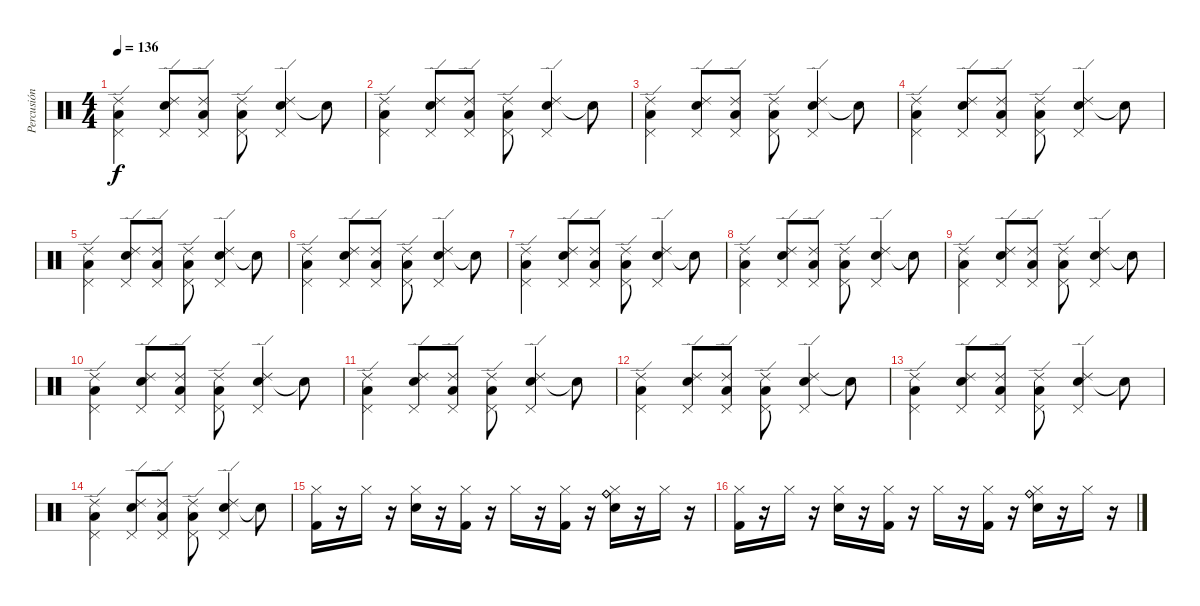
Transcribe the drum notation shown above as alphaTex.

\track ("Percusión" "Percusión") {instrument percussion}
\staff {score}
\articulation defaults
\ts (4 4)
\tempo 136
\clef neutral
\ks c
("Low Tom (hit)" "Pedal Hi-Hat (hit)" "Ride (edge) 2").4{dy f} ("Electric Snare (hit)" "Pedal Hi-Hat (hit)" "Ride (edge) 2").8 ("Low Tom (hit)" "Pedal Hi-Hat (hit)" "Ride (edge) 2").8 ("Low Tom (hit)" "Pedal Hi-Hat (hit)" "Ride (edge) 2").8 ("Electric Snare (hit)" "Pedal Hi-Hat (hit)" "Ride (edge) 2").4 "Snare (hit)"{t}.8 |
("Low Tom (hit)" "Pedal Hi-Hat (hit)" "Ride (edge) 2").4 ("Electric Snare (hit)" "Pedal Hi-Hat (hit)" "Ride (edge) 2").8 ("Low Tom (hit)" "Pedal Hi-Hat (hit)" "Ride (edge) 2").8 ("Low Tom (hit)" "Pedal Hi-Hat (hit)" "Ride (edge) 2").8 ("Electric Snare (hit)" "Pedal Hi-Hat (hit)" "Ride (edge) 2").4 "Snare (hit)"{t}.8 |
("Low Tom (hit)" "Pedal Hi-Hat (hit)" "Ride (edge) 2").4 ("Electric Snare (hit)" "Pedal Hi-Hat (hit)" "Ride (edge) 2").8 ("Low Tom (hit)" "Pedal Hi-Hat (hit)" "Ride (edge) 2").8 ("Low Tom (hit)" "Pedal Hi-Hat (hit)" "Ride (edge) 2").8 ("Electric Snare (hit)" "Pedal Hi-Hat (hit)" "Ride (edge) 2").4 "Snare (hit)"{t}.8 |
("Low Tom (hit)" "Pedal Hi-Hat (hit)" "Ride (edge) 2").4 ("Electric Snare (hit)" "Pedal Hi-Hat (hit)" "Ride (edge) 2").8 ("Low Tom (hit)" "Pedal Hi-Hat (hit)" "Ride (edge) 2").8 ("Low Tom (hit)" "Pedal Hi-Hat (hit)" "Ride (edge) 2").8 ("Electric Snare (hit)" "Pedal Hi-Hat (hit)" "Ride (edge) 2").4 "Snare (hit)"{t}.8 |
("Low Tom (hit)" "Pedal Hi-Hat (hit)" "Ride (edge) 2").4 ("Electric Snare (hit)" "Pedal Hi-Hat (hit)" "Ride (edge) 2").8 ("Low Tom (hit)" "Pedal Hi-Hat (hit)" "Ride (edge) 2").8 ("Low Tom (hit)" "Pedal Hi-Hat (hit)" "Ride (edge) 2").8 ("Electric Snare (hit)" "Pedal Hi-Hat (hit)" "Ride (edge) 2").4 "Snare (hit)"{t}.8 |
("Low Tom (hit)" "Pedal Hi-Hat (hit)" "Ride (edge) 2").4 ("Electric Snare (hit)" "Pedal Hi-Hat (hit)" "Ride (edge) 2").8 ("Low Tom (hit)" "Pedal Hi-Hat (hit)" "Ride (edge) 2").8 ("Low Tom (hit)" "Pedal Hi-Hat (hit)" "Ride (edge) 2").8 ("Electric Snare (hit)" "Pedal Hi-Hat (hit)" "Ride (edge) 2").4 "Snare (hit)"{t}.8 |
("Low Tom (hit)" "Pedal Hi-Hat (hit)" "Ride (edge) 2").4 ("Electric Snare (hit)" "Pedal Hi-Hat (hit)" "Ride (edge) 2").8 ("Low Tom (hit)" "Pedal Hi-Hat (hit)" "Ride (edge) 2").8 ("Low Tom (hit)" "Pedal Hi-Hat (hit)" "Ride (edge) 2").8 ("Electric Snare (hit)" "Pedal Hi-Hat (hit)" "Ride (edge) 2").4 "Snare (hit)"{t}.8 |
("Low Tom (hit)" "Pedal Hi-Hat (hit)" "Ride (edge) 2").4 ("Electric Snare (hit)" "Pedal Hi-Hat (hit)" "Ride (edge) 2").8 ("Low Tom (hit)" "Pedal Hi-Hat (hit)" "Ride (edge) 2").8 ("Low Tom (hit)" "Pedal Hi-Hat (hit)" "Ride (edge) 2").8 ("Electric Snare (hit)" "Pedal Hi-Hat (hit)" "Ride (edge) 2").4 "Snare (hit)"{t}.8 |
("Low Tom (hit)" "Pedal Hi-Hat (hit)" "Ride (edge) 2").4 ("Electric Snare (hit)" "Pedal Hi-Hat (hit)" "Ride (edge) 2").8 ("Low Tom (hit)" "Pedal Hi-Hat (hit)" "Ride (edge) 2").8 ("Low Tom (hit)" "Pedal Hi-Hat (hit)" "Ride (edge) 2").8 ("Electric Snare (hit)" "Pedal Hi-Hat (hit)" "Ride (edge) 2").4 "Snare (hit)"{t}.8 |
("Low Tom (hit)" "Pedal Hi-Hat (hit)" "Ride (edge) 2").4 ("Electric Snare (hit)" "Pedal Hi-Hat (hit)" "Ride (edge) 2").8 ("Low Tom (hit)" "Pedal Hi-Hat (hit)" "Ride (edge) 2").8 ("Low Tom (hit)" "Pedal Hi-Hat (hit)" "Ride (edge) 2").8 ("Electric Snare (hit)" "Pedal Hi-Hat (hit)" "Ride (edge) 2").4 "Snare (hit)"{t}.8 |
("Low Tom (hit)" "Pedal Hi-Hat (hit)" "Ride (edge) 2").4 ("Electric Snare (hit)" "Pedal Hi-Hat (hit)" "Ride (edge) 2").8 ("Low Tom (hit)" "Pedal Hi-Hat (hit)" "Ride (edge) 2").8 ("Low Tom (hit)" "Pedal Hi-Hat (hit)" "Ride (edge) 2").8 ("Electric Snare (hit)" "Pedal Hi-Hat (hit)" "Ride (edge) 2").4 "Snare (hit)"{t}.8 |
("Low Tom (hit)" "Pedal Hi-Hat (hit)" "Ride (edge) 2").4 ("Electric Snare (hit)" "Pedal Hi-Hat (hit)" "Ride (edge) 2").8 ("Low Tom (hit)" "Pedal Hi-Hat (hit)" "Ride (edge) 2").8 ("Low Tom (hit)" "Pedal Hi-Hat (hit)" "Ride (edge) 2").8 ("Electric Snare (hit)" "Pedal Hi-Hat (hit)" "Ride (edge) 2").4 "Snare (hit)"{t}.8 |
("Low Tom (hit)" "Pedal Hi-Hat (hit)" "Ride (edge) 2").4 ("Electric Snare (hit)" "Pedal Hi-Hat (hit)" "Ride (edge) 2").8 ("Low Tom (hit)" "Pedal Hi-Hat (hit)" "Ride (edge) 2").8 ("Low Tom (hit)" "Pedal Hi-Hat (hit)" "Ride (edge) 2").8 ("Electric Snare (hit)" "Pedal Hi-Hat (hit)" "Ride (edge) 2").4 "Snare (hit)"{t}.8 |
("Low Tom (hit)" "Pedal Hi-Hat (hit)" "Ride (edge) 2").4 ("Electric Snare (hit)" "Pedal Hi-Hat (hit)" "Ride (edge) 2").8 ("Low Tom (hit)" "Pedal Hi-Hat (hit)" "Ride (edge) 2").8 ("Low Tom (hit)" "Pedal Hi-Hat (hit)" "Ride (edge) 2").8 ("Electric Snare (hit)" "Pedal Hi-Hat (hit)" "Ride (edge) 2").4 "Snare (hit)"{t}.8 |
("Kick (hit) 2" "Hi-Hat (closed)").16 r.16 "Hi-Hat (closed)".16 r.16 ("Electric Snare (hit)" "Hi-Hat (closed)").16 r.16 ("Kick (hit) 2" "Hi-Hat (closed)").16 r.16 "Hi-Hat (closed)".16 r.16 ("Kick (hit) 2" "Hi-Hat (closed)").16 r.16 ("Electric Snare (hit)" "Hi-Hat (closed)" "Ride (bell)" "Ride (bell)").16 r.16 "Hi-Hat (closed)".16 r.16 |
("Kick (hit) 2" "Hi-Hat (closed)").16 r.16 "Hi-Hat (closed)".16 r.16 ("Electric Snare (hit)" "Hi-Hat (closed)").16 r.16 ("Kick (hit) 2" "Hi-Hat (closed)").16 r.16 "Hi-Hat (closed)".16 r.16 ("Kick (hit) 2" "Hi-Hat (closed)").16 r.16 ("Electric Snare (hit)" "Hi-Hat (closed)" "Ride (bell)" "Ride (bell)").16 r.16 "Hi-Hat (closed)".16 r.16
